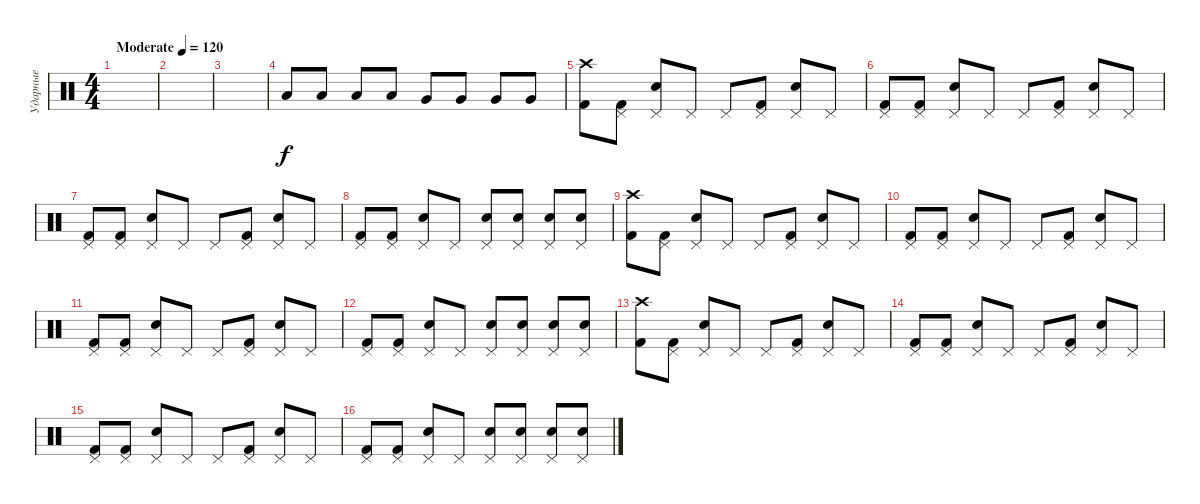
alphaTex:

\track ("Ударные" "Ударные") {instrument percussion}
\staff {score}
\articulation defaults
\ts (4 4)
\tempo (120 "Moderate")
\clef neutral
\ks c
|
|
|
"Low Floor Tom (hit)".8 "Low Floor Tom (hit)".8 "Low Floor Tom (hit)".8 "Low Floor Tom (hit)".8 "Very Low Tom (hit)".8 "Very Low Tom (hit)".8 "Very Low Tom (hit)".8 "Very Low Tom (hit)".8 |
("Crash high (hit)" "Kick (hit) 2").8 ("Pedal Hi-Hat (hit)" "Kick (hit) 2").8 ("Pedal Hi-Hat (hit)" "Snare (hit) 2").8 "Pedal Hi-Hat (hit)".8 "Pedal Hi-Hat (hit)".8 ("Pedal Hi-Hat (hit)" "Kick (hit) 2").8 ("Pedal Hi-Hat (hit)" "Snare (hit) 2").8 "Pedal Hi-Hat (hit)".8 |
("Pedal Hi-Hat (hit)" "Kick (hit) 2").8 ("Pedal Hi-Hat (hit)" "Kick (hit) 2").8 ("Pedal Hi-Hat (hit)" "Snare (hit) 2").8 "Pedal Hi-Hat (hit)".8 "Pedal Hi-Hat (hit)".8 ("Pedal Hi-Hat (hit)" "Kick (hit) 2").8 ("Pedal Hi-Hat (hit)" "Snare (hit) 2").8 "Pedal Hi-Hat (hit)".8 |
("Pedal Hi-Hat (hit)" "Kick (hit) 2").8 ("Pedal Hi-Hat (hit)" "Kick (hit) 2").8 ("Pedal Hi-Hat (hit)" "Snare (hit) 2").8 "Pedal Hi-Hat (hit)".8 "Pedal Hi-Hat (hit)".8 ("Pedal Hi-Hat (hit)" "Kick (hit) 2").8 ("Pedal Hi-Hat (hit)" "Snare (hit) 2").8 "Pedal Hi-Hat (hit)".8 |
("Pedal Hi-Hat (hit)" "Kick (hit) 2").8 ("Pedal Hi-Hat (hit)" "Kick (hit) 2").8 ("Pedal Hi-Hat (hit)" "Snare (hit) 2").8 "Pedal Hi-Hat (hit)".8 ("Pedal Hi-Hat (hit)" "Snare (hit) 2").8 ("Pedal Hi-Hat (hit)" "Snare (hit) 2").8 ("Pedal Hi-Hat (hit)" "Snare (hit) 2").8 ("Pedal Hi-Hat (hit)" "Snare (hit) 2").8 |
("Crash high (hit)" "Kick (hit) 2").8 ("Pedal Hi-Hat (hit)" "Kick (hit) 2").8 ("Pedal Hi-Hat (hit)" "Snare (hit) 2").8 "Pedal Hi-Hat (hit)".8 "Pedal Hi-Hat (hit)".8 ("Pedal Hi-Hat (hit)" "Kick (hit) 2").8 ("Pedal Hi-Hat (hit)" "Snare (hit) 2").8 "Pedal Hi-Hat (hit)".8 |
("Pedal Hi-Hat (hit)" "Kick (hit) 2").8 ("Pedal Hi-Hat (hit)" "Kick (hit) 2").8 ("Pedal Hi-Hat (hit)" "Snare (hit) 2").8 "Pedal Hi-Hat (hit)".8 "Pedal Hi-Hat (hit)".8 ("Pedal Hi-Hat (hit)" "Kick (hit) 2").8 ("Pedal Hi-Hat (hit)" "Snare (hit) 2").8 "Pedal Hi-Hat (hit)".8 |
("Pedal Hi-Hat (hit)" "Kick (hit) 2").8 ("Pedal Hi-Hat (hit)" "Kick (hit) 2").8 ("Pedal Hi-Hat (hit)" "Snare (hit) 2").8 "Pedal Hi-Hat (hit)".8 "Pedal Hi-Hat (hit)".8 ("Pedal Hi-Hat (hit)" "Kick (hit) 2").8 ("Pedal Hi-Hat (hit)" "Snare (hit) 2").8 "Pedal Hi-Hat (hit)".8 |
("Pedal Hi-Hat (hit)" "Kick (hit) 2").8 ("Pedal Hi-Hat (hit)" "Kick (hit) 2").8 ("Pedal Hi-Hat (hit)" "Snare (hit) 2").8 "Pedal Hi-Hat (hit)".8 ("Pedal Hi-Hat (hit)" "Snare (hit) 2").8 ("Pedal Hi-Hat (hit)" "Snare (hit) 2").8 ("Pedal Hi-Hat (hit)" "Snare (hit) 2").8 ("Pedal Hi-Hat (hit)" "Snare (hit) 2").8 |
("Crash high (hit)" "Kick (hit) 2").8 ("Pedal Hi-Hat (hit)" "Kick (hit) 2").8 ("Pedal Hi-Hat (hit)" "Snare (hit) 2").8 "Pedal Hi-Hat (hit)".8 "Pedal Hi-Hat (hit)".8 ("Pedal Hi-Hat (hit)" "Kick (hit) 2").8 ("Pedal Hi-Hat (hit)" "Snare (hit) 2").8 "Pedal Hi-Hat (hit)".8 |
("Pedal Hi-Hat (hit)" "Kick (hit) 2").8 ("Pedal Hi-Hat (hit)" "Kick (hit) 2").8 ("Pedal Hi-Hat (hit)" "Snare (hit) 2").8 "Pedal Hi-Hat (hit)".8 "Pedal Hi-Hat (hit)".8 ("Pedal Hi-Hat (hit)" "Kick (hit) 2").8 ("Pedal Hi-Hat (hit)" "Snare (hit) 2").8 "Pedal Hi-Hat (hit)".8 |
("Pedal Hi-Hat (hit)" "Kick (hit) 2").8 ("Pedal Hi-Hat (hit)" "Kick (hit) 2").8 ("Pedal Hi-Hat (hit)" "Snare (hit) 2").8 "Pedal Hi-Hat (hit)".8 "Pedal Hi-Hat (hit)".8 ("Pedal Hi-Hat (hit)" "Kick (hit) 2").8 ("Pedal Hi-Hat (hit)" "Snare (hit) 2").8 "Pedal Hi-Hat (hit)".8 |
("Pedal Hi-Hat (hit)" "Kick (hit) 2").8 ("Pedal Hi-Hat (hit)" "Kick (hit) 2").8 ("Pedal Hi-Hat (hit)" "Snare (hit) 2").8 "Pedal Hi-Hat (hit)".8 ("Pedal Hi-Hat (hit)" "Snare (hit) 2").8 ("Pedal Hi-Hat (hit)" "Snare (hit) 2").8 ("Pedal Hi-Hat (hit)" "Snare (hit) 2").8 ("Pedal Hi-Hat (hit)" "Snare (hit) 2").8
